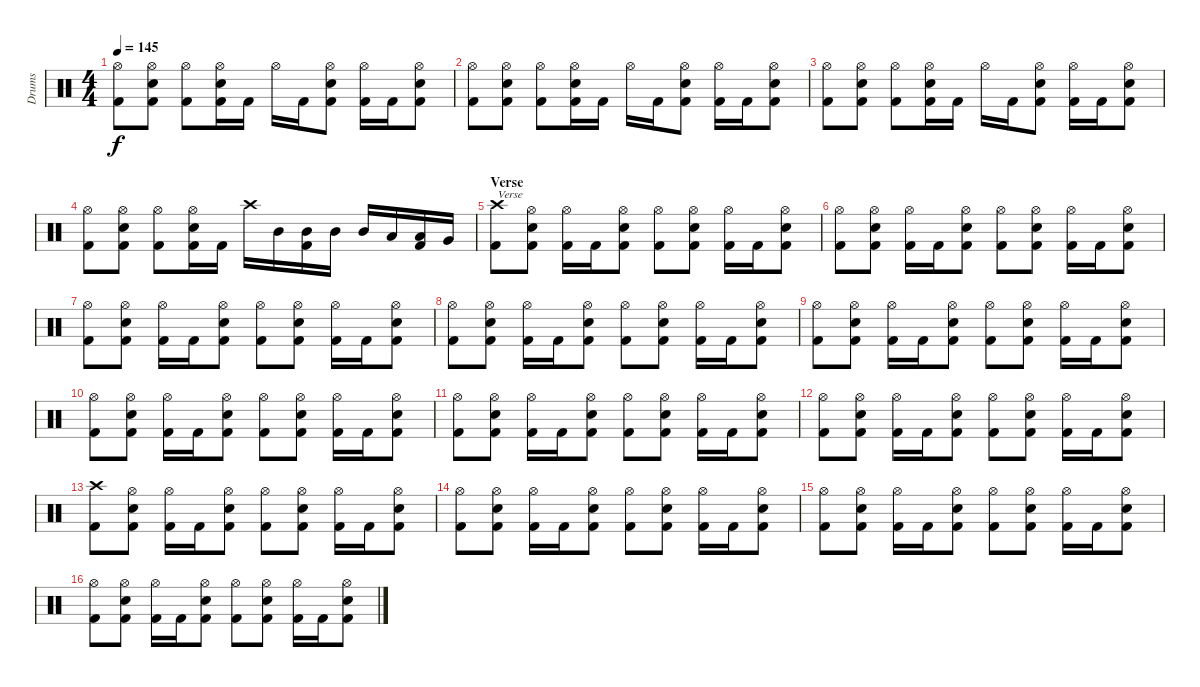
\track ("Drums" "Drums") {instrument percussion}
\staff {score}
\articulation defaults
\ts (4 4)
\tempo 145
\clef neutral
\ks c
("Hi-Hat (open)" "Kick (hit) 2").8{dy f} ("Hi-Hat (open)" "Electric Snare (hit)" "Kick (hit) 2").8 ("Hi-Hat (open)" "Kick (hit) 2").8 ("Hi-Hat (open)" "Electric Snare (hit)" "Kick (hit) 2").16 "Kick (hit) 2".16 "Hi-Hat (open)".16 "Kick (hit) 2".16 ("Hi-Hat (open)" "Electric Snare (hit)" "Kick (hit) 2").8 ("Hi-Hat (open)" "Kick (hit) 2").16 "Kick (hit) 2".16 ("Hi-Hat (open)" "Electric Snare (hit)" "Kick (hit) 2").8 |
("Hi-Hat (open)" "Kick (hit) 2").8 ("Hi-Hat (open)" "Electric Snare (hit)" "Kick (hit) 2").8 ("Hi-Hat (open)" "Kick (hit) 2").8 ("Hi-Hat (open)" "Electric Snare (hit)" "Kick (hit) 2").16 "Kick (hit) 2".16 "Hi-Hat (open)".16 "Kick (hit) 2".16 ("Hi-Hat (open)" "Electric Snare (hit)" "Kick (hit) 2").8 ("Hi-Hat (open)" "Kick (hit) 2").16 "Kick (hit) 2".16 ("Hi-Hat (open)" "Electric Snare (hit)" "Kick (hit) 2").8 |
("Hi-Hat (open)" "Kick (hit) 2").8 ("Hi-Hat (open)" "Electric Snare (hit)" "Kick (hit) 2").8 ("Hi-Hat (open)" "Kick (hit) 2").8 ("Hi-Hat (open)" "Electric Snare (hit)" "Kick (hit) 2").16 "Kick (hit) 2".16 "Hi-Hat (open)".16 "Kick (hit) 2".16 ("Hi-Hat (open)" "Electric Snare (hit)" "Kick (hit) 2").8 ("Hi-Hat (open)" "Kick (hit) 2").16 "Kick (hit) 2".16 ("Hi-Hat (open)" "Electric Snare (hit)" "Kick (hit) 2").8 |
("Hi-Hat (open)" "Kick (hit) 2").8 ("Hi-Hat (open)" "Electric Snare (hit)" "Kick (hit) 2").8 ("Hi-Hat (open)" "Kick (hit) 2").8 ("Hi-Hat (open)" "Electric Snare (hit)" "Kick (hit) 2").16 "Kick (hit) 2".16 "Crash high (hit)".16 "Mid Tom (hit)".16 ("Mid Tom (hit)" "Kick (hit) 2").16 "Mid Tom (hit)".16 "Mid Tom (hit)".16 "Low Tom (hit)".16 ("Low Tom (hit)" "Kick (hit) 2").16 "Very Low Tom (hit)".16 |
\section ("" "Verse")
("Crash high (hit)" "Kick (hit) 2").8{txt "Verse"} ("Hi-Hat (open)" "Electric Snare (hit)" "Kick (hit) 2").8 ("Hi-Hat (open)" "Kick (hit) 2").16 "Kick (hit) 2".16 ("Hi-Hat (open)" "Electric Snare (hit)" "Kick (hit) 2").8 ("Hi-Hat (open)" "Kick (hit) 2").8 ("Hi-Hat (open)" "Electric Snare (hit)" "Kick (hit) 2").8 ("Hi-Hat (open)" "Kick (hit) 2").16 "Kick (hit) 2".16 ("Hi-Hat (open)" "Electric Snare (hit)" "Kick (hit) 2").8 |
("Hi-Hat (open)" "Kick (hit) 2").8 ("Hi-Hat (open)" "Electric Snare (hit)" "Kick (hit) 2").8 ("Hi-Hat (open)" "Kick (hit) 2").16 "Kick (hit) 2".16 ("Hi-Hat (open)" "Electric Snare (hit)" "Kick (hit) 2").8 ("Hi-Hat (open)" "Kick (hit) 2").8 ("Hi-Hat (open)" "Electric Snare (hit)" "Kick (hit) 2").8 ("Hi-Hat (open)" "Kick (hit) 2").16 "Kick (hit) 2".16 ("Hi-Hat (open)" "Electric Snare (hit)" "Kick (hit) 2").8 |
("Hi-Hat (open)" "Kick (hit) 2").8 ("Hi-Hat (open)" "Electric Snare (hit)" "Kick (hit) 2").8 ("Hi-Hat (open)" "Kick (hit) 2").16 "Kick (hit) 2".16 ("Hi-Hat (open)" "Electric Snare (hit)" "Kick (hit) 2").8 ("Hi-Hat (open)" "Kick (hit) 2").8 ("Hi-Hat (open)" "Electric Snare (hit)" "Kick (hit) 2").8 ("Hi-Hat (open)" "Kick (hit) 2").16 "Kick (hit) 2".16 ("Hi-Hat (open)" "Electric Snare (hit)" "Kick (hit) 2").8 |
("Hi-Hat (open)" "Kick (hit) 2").8 ("Hi-Hat (open)" "Electric Snare (hit)" "Kick (hit) 2").8 ("Hi-Hat (open)" "Kick (hit) 2").16 "Kick (hit) 2".16 ("Hi-Hat (open)" "Electric Snare (hit)" "Kick (hit) 2").8 ("Hi-Hat (open)" "Kick (hit) 2").8 ("Hi-Hat (open)" "Electric Snare (hit)" "Kick (hit) 2").8 ("Hi-Hat (open)" "Kick (hit) 2").16 "Kick (hit) 2".16 ("Hi-Hat (open)" "Electric Snare (hit)" "Kick (hit) 2").8 |
("Hi-Hat (open)" "Kick (hit) 2").8 ("Hi-Hat (open)" "Electric Snare (hit)" "Kick (hit) 2").8 ("Hi-Hat (open)" "Kick (hit) 2").16 "Kick (hit) 2".16 ("Hi-Hat (open)" "Electric Snare (hit)" "Kick (hit) 2").8 ("Hi-Hat (open)" "Kick (hit) 2").8 ("Hi-Hat (open)" "Electric Snare (hit)" "Kick (hit) 2").8 ("Hi-Hat (open)" "Kick (hit) 2").16 "Kick (hit) 2".16 ("Hi-Hat (open)" "Electric Snare (hit)" "Kick (hit) 2").8 |
("Hi-Hat (open)" "Kick (hit) 2").8 ("Hi-Hat (open)" "Electric Snare (hit)" "Kick (hit) 2").8 ("Hi-Hat (open)" "Kick (hit) 2").16 "Kick (hit) 2".16 ("Hi-Hat (open)" "Electric Snare (hit)" "Kick (hit) 2").8 ("Hi-Hat (open)" "Kick (hit) 2").8 ("Hi-Hat (open)" "Electric Snare (hit)" "Kick (hit) 2").8 ("Hi-Hat (open)" "Kick (hit) 2").16 "Kick (hit) 2".16 ("Hi-Hat (open)" "Electric Snare (hit)" "Kick (hit) 2").8 |
("Hi-Hat (open)" "Kick (hit) 2").8 ("Hi-Hat (open)" "Electric Snare (hit)" "Kick (hit) 2").8 ("Hi-Hat (open)" "Kick (hit) 2").16 "Kick (hit) 2".16 ("Hi-Hat (open)" "Electric Snare (hit)" "Kick (hit) 2").8 ("Hi-Hat (open)" "Kick (hit) 2").8 ("Hi-Hat (open)" "Electric Snare (hit)" "Kick (hit) 2").8 ("Hi-Hat (open)" "Kick (hit) 2").16 "Kick (hit) 2".16 ("Hi-Hat (open)" "Electric Snare (hit)" "Kick (hit) 2").8 |
("Hi-Hat (open)" "Kick (hit) 2").8 ("Hi-Hat (open)" "Electric Snare (hit)" "Kick (hit) 2").8 ("Hi-Hat (open)" "Kick (hit) 2").16 "Kick (hit) 2".16 ("Hi-Hat (open)" "Electric Snare (hit)" "Kick (hit) 2").8 ("Hi-Hat (open)" "Kick (hit) 2").8 ("Hi-Hat (open)" "Electric Snare (hit)" "Kick (hit) 2").8 ("Hi-Hat (open)" "Kick (hit) 2").16 "Kick (hit) 2".16 ("Hi-Hat (open)" "Electric Snare (hit)" "Kick (hit) 2").8 |
("Crash high (hit)" "Kick (hit) 2").8 ("Hi-Hat (open)" "Electric Snare (hit)" "Kick (hit) 2").8 ("Hi-Hat (open)" "Kick (hit) 2").16 "Kick (hit) 2".16 ("Hi-Hat (open)" "Electric Snare (hit)" "Kick (hit) 2").8 ("Hi-Hat (open)" "Kick (hit) 2").8 ("Hi-Hat (open)" "Electric Snare (hit)" "Kick (hit) 2").8 ("Hi-Hat (open)" "Kick (hit) 2").16 "Kick (hit) 2".16 ("Hi-Hat (open)" "Electric Snare (hit)" "Kick (hit) 2").8 |
("Hi-Hat (open)" "Kick (hit) 2").8 ("Hi-Hat (open)" "Electric Snare (hit)" "Kick (hit) 2").8 ("Hi-Hat (open)" "Kick (hit) 2").16 "Kick (hit) 2".16 ("Hi-Hat (open)" "Electric Snare (hit)" "Kick (hit) 2").8 ("Hi-Hat (open)" "Kick (hit) 2").8 ("Hi-Hat (open)" "Electric Snare (hit)" "Kick (hit) 2").8 ("Hi-Hat (open)" "Kick (hit) 2").16 "Kick (hit) 2".16 ("Hi-Hat (open)" "Electric Snare (hit)" "Kick (hit) 2").8 |
("Hi-Hat (open)" "Kick (hit) 2").8 ("Hi-Hat (open)" "Electric Snare (hit)" "Kick (hit) 2").8 ("Hi-Hat (open)" "Kick (hit) 2").16 "Kick (hit) 2".16 ("Hi-Hat (open)" "Electric Snare (hit)" "Kick (hit) 2").8 ("Hi-Hat (open)" "Kick (hit) 2").8 ("Hi-Hat (open)" "Electric Snare (hit)" "Kick (hit) 2").8 ("Hi-Hat (open)" "Kick (hit) 2").16 "Kick (hit) 2".16 ("Hi-Hat (open)" "Electric Snare (hit)" "Kick (hit) 2").8 |
("Hi-Hat (open)" "Kick (hit) 2").8 ("Hi-Hat (open)" "Electric Snare (hit)" "Kick (hit) 2").8 ("Hi-Hat (open)" "Kick (hit) 2").16 "Kick (hit) 2".16 ("Hi-Hat (open)" "Electric Snare (hit)" "Kick (hit) 2").8 ("Hi-Hat (open)" "Kick (hit) 2").8 ("Hi-Hat (open)" "Electric Snare (hit)" "Kick (hit) 2").8 ("Hi-Hat (open)" "Kick (hit) 2").16 "Kick (hit) 2".16 ("Hi-Hat (open)" "Electric Snare (hit)" "Kick (hit) 2").8
